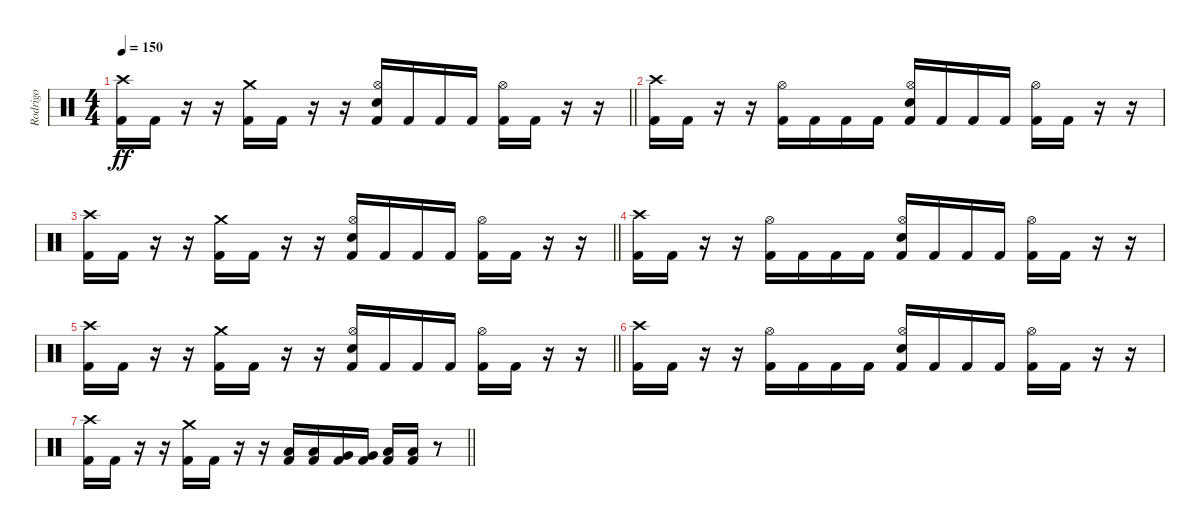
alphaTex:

\track ("Rodrigo" "Rodrigo") {instrument percussion}
\staff {score}
\articulation defaults
\ts (4 4)
\tempo 150
\clef neutral
\barLineRight lightlight
\ks c
("Crash high (hit)" "Kick (hit) 2").16{dy ff} "Kick (hit) 2".16 r.16 r.16 ("Crash medium (hit)" "Kick (hit) 2").16 "Kick (hit) 2".16 r.16 r.16 ("Hi-Hat (open)" "Electric Snare (hit)" "Kick (hit) 2").16 "Kick (hit) 2".16 "Kick (hit) 2".16 "Kick (hit) 2".16 ("Hi-Hat (open)" "Kick (hit) 2").16 "Kick (hit) 2".16 r.16 r.16 |
("Crash high (hit)" "Kick (hit) 2").16 "Kick (hit) 2".16 r.16 r.16 ("Hi-Hat (open)" "Kick (hit) 2").16 "Kick (hit) 2".16 "Kick (hit) 2".16 "Kick (hit) 2".16 ("Hi-Hat (open)" "Electric Snare (hit)" "Kick (hit) 2").16 "Kick (hit) 2".16 "Kick (hit) 2".16 "Kick (hit) 2".16 ("Hi-Hat (open)" "Kick (hit) 2").16 "Kick (hit) 2".16 r.16 r.16 |
\barLineRight lightlight
("Crash high (hit)" "Kick (hit) 2").16 "Kick (hit) 2".16 r.16 r.16 ("Crash medium (hit)" "Kick (hit) 2").16 "Kick (hit) 2".16 r.16 r.16 ("Hi-Hat (open)" "Electric Snare (hit)" "Kick (hit) 2").16 "Kick (hit) 2".16 "Kick (hit) 2".16 "Kick (hit) 2".16 ("Hi-Hat (open)" "Kick (hit) 2").16 "Kick (hit) 2".16 r.16 r.16 |
("Crash high (hit)" "Kick (hit) 2").16 "Kick (hit) 2".16 r.16 r.16 ("Hi-Hat (open)" "Kick (hit) 2").16 "Kick (hit) 2".16 "Kick (hit) 2".16 "Kick (hit) 2".16 ("Hi-Hat (open)" "Electric Snare (hit)" "Kick (hit) 2").16 "Kick (hit) 2".16 "Kick (hit) 2".16 "Kick (hit) 2".16 ("Hi-Hat (open)" "Kick (hit) 2").16 "Kick (hit) 2".16 r.16 r.16 |
\barLineRight lightlight
("Crash high (hit)" "Kick (hit) 2").16 "Kick (hit) 2".16 r.16 r.16 ("Crash medium (hit)" "Kick (hit) 2").16 "Kick (hit) 2".16 r.16 r.16 ("Hi-Hat (open)" "Electric Snare (hit)" "Kick (hit) 2").16 "Kick (hit) 2".16 "Kick (hit) 2".16 "Kick (hit) 2".16 ("Hi-Hat (open)" "Kick (hit) 2").16 "Kick (hit) 2".16 r.16 r.16 |
("Crash high (hit)" "Kick (hit) 2").16 "Kick (hit) 2".16 r.16 r.16 ("Hi-Hat (open)" "Kick (hit) 2").16 "Kick (hit) 2".16 "Kick (hit) 2".16 "Kick (hit) 2".16 ("Hi-Hat (open)" "Electric Snare (hit)" "Kick (hit) 2").16 "Kick (hit) 2".16 "Kick (hit) 2".16 "Kick (hit) 2".16 ("Hi-Hat (open)" "Kick (hit) 2").16 "Kick (hit) 2".16 r.16 r.16 |
\barLineRight lightlight
("Crash high (hit)" "Kick (hit) 2").16 "Kick (hit) 2".16 r.16 r.16 ("Crash medium (hit)" "Kick (hit) 2").16 "Kick (hit) 2".16 r.16 r.16 ("Low Tom (hit)" "Kick (hit) 2").16 ("Low Tom (hit)" "Kick (hit) 2").16 ("Very Low Tom (hit)" "Kick (hit) 2").16 ("Very Low Tom (hit)" "Kick (hit) 2").16 ("Low Floor Tom (hit)" "Kick (hit) 2").16 ("Low Floor Tom (hit)" "Kick (hit) 2").16 r.8
